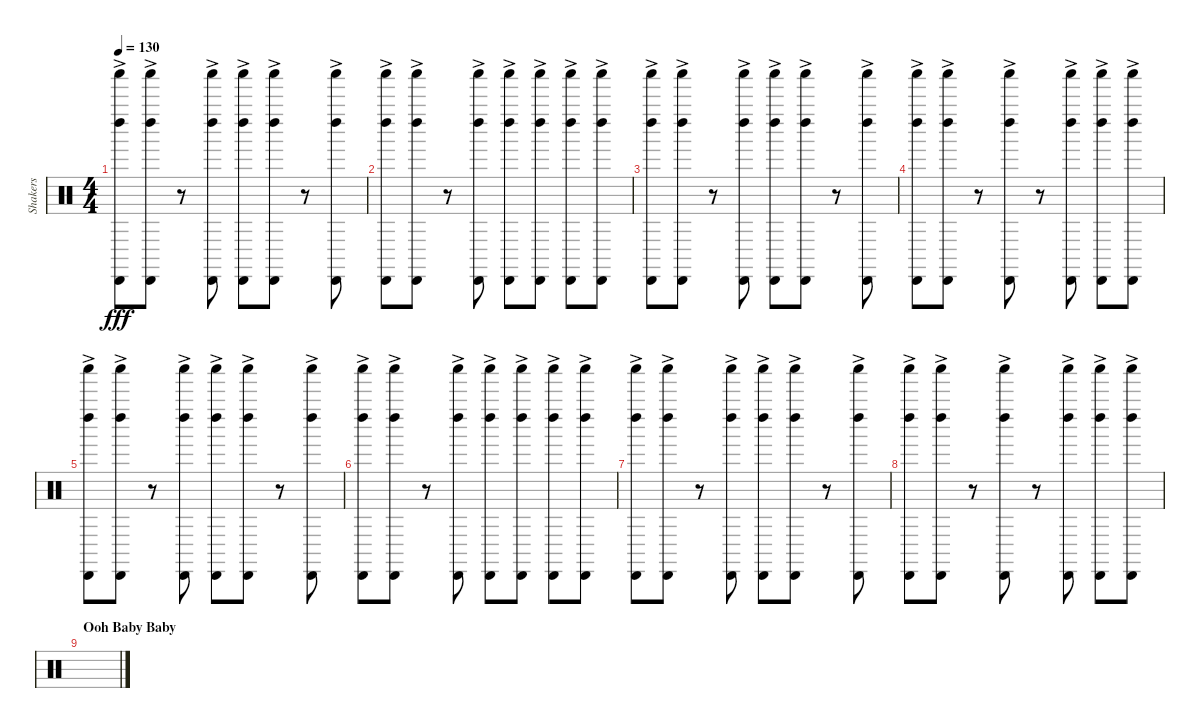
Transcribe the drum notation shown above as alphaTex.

\track ("Shakers" "Shakers") {instrument percussion}
\staff {score}
\articulation defaults
\ts (4 4)
\tempo 130
\clef neutral
\ks c
("Cabasa (hit)"{ac} "Left Maraca (hit)"{ac} "Shaker (hit)"{ac}).8{dy fff} ("Cabasa (hit)"{ac} "Left Maraca (hit)"{ac} "Shaker (hit)"{ac}).8 r.8 ("Cabasa (hit)"{ac} "Left Maraca (hit)"{ac} "Shaker (hit)"{ac}).8 ("Cabasa (hit)"{ac} "Left Maraca (hit)"{ac} "Shaker (hit)"{ac}).8 ("Cabasa (hit)"{ac} "Left Maraca (hit)"{ac} "Shaker (hit)"{ac}).8 r.8 ("Cabasa (hit)"{ac} "Left Maraca (hit)"{ac} "Shaker (hit)"{ac}).8 |
("Cabasa (hit)"{ac} "Left Maraca (hit)"{ac} "Shaker (hit)"{ac}).8 ("Cabasa (hit)"{ac} "Left Maraca (hit)"{ac} "Shaker (hit)"{ac}).8 r.8 ("Cabasa (hit)"{ac} "Left Maraca (hit)"{ac} "Shaker (hit)"{ac}).8 ("Cabasa (hit)"{ac} "Left Maraca (hit)"{ac} "Shaker (hit)"{ac}).8 ("Cabasa (hit)"{ac} "Left Maraca (hit)"{ac} "Shaker (hit)"{ac}).8 ("Cabasa (hit)"{ac} "Left Maraca (hit)"{ac} "Shaker (hit)"{ac}).8 ("Cabasa (hit)"{ac} "Left Maraca (hit)"{ac} "Shaker (hit)"{ac}).8 |
("Cabasa (hit)"{ac} "Left Maraca (hit)"{ac} "Shaker (hit)"{ac}).8 ("Cabasa (hit)"{ac} "Left Maraca (hit)"{ac} "Shaker (hit)"{ac}).8 r.8 ("Cabasa (hit)"{ac} "Left Maraca (hit)"{ac} "Shaker (hit)"{ac}).8 ("Cabasa (hit)"{ac} "Left Maraca (hit)"{ac} "Shaker (hit)"{ac}).8 ("Cabasa (hit)"{ac} "Left Maraca (hit)"{ac} "Shaker (hit)"{ac}).8 r.8 ("Cabasa (hit)"{ac} "Left Maraca (hit)"{ac} "Shaker (hit)"{ac}).8 |
("Cabasa (hit)"{ac} "Left Maraca (hit)"{ac} "Shaker (hit)"{ac}).8 ("Cabasa (hit)"{ac} "Left Maraca (hit)"{ac} "Shaker (hit)"{ac}).8 r.8 ("Cabasa (hit)"{ac} "Left Maraca (hit)"{ac} "Shaker (hit)"{ac}).8 r.8 ("Cabasa (hit)"{ac} "Left Maraca (hit)"{ac} "Shaker (hit)"{ac}).8 ("Cabasa (hit)"{ac} "Left Maraca (hit)"{ac} "Shaker (hit)"{ac}).8 ("Cabasa (hit)"{ac} "Left Maraca (hit)"{ac} "Shaker (hit)"{ac}).8 |
("Cabasa (hit)"{ac} "Left Maraca (hit)"{ac} "Shaker (hit)"{ac}).8 ("Cabasa (hit)"{ac} "Left Maraca (hit)"{ac} "Shaker (hit)"{ac}).8 r.8 ("Cabasa (hit)"{ac} "Left Maraca (hit)"{ac} "Shaker (hit)"{ac}).8 ("Cabasa (hit)"{ac} "Left Maraca (hit)"{ac} "Shaker (hit)"{ac}).8 ("Cabasa (hit)"{ac} "Left Maraca (hit)"{ac} "Shaker (hit)"{ac}).8 r.8 ("Cabasa (hit)"{ac} "Left Maraca (hit)"{ac} "Shaker (hit)"{ac}).8 |
("Cabasa (hit)"{ac} "Left Maraca (hit)"{ac} "Shaker (hit)"{ac}).8 ("Cabasa (hit)"{ac} "Left Maraca (hit)"{ac} "Shaker (hit)"{ac}).8 r.8 ("Cabasa (hit)"{ac} "Left Maraca (hit)"{ac} "Shaker (hit)"{ac}).8 ("Cabasa (hit)"{ac} "Left Maraca (hit)"{ac} "Shaker (hit)"{ac}).8 ("Cabasa (hit)"{ac} "Left Maraca (hit)"{ac} "Shaker (hit)"{ac}).8 ("Cabasa (hit)"{ac} "Left Maraca (hit)"{ac} "Shaker (hit)"{ac}).8 ("Cabasa (hit)"{ac} "Left Maraca (hit)"{ac} "Shaker (hit)"{ac}).8 |
("Cabasa (hit)"{ac} "Left Maraca (hit)"{ac} "Shaker (hit)"{ac}).8 ("Cabasa (hit)"{ac} "Left Maraca (hit)"{ac} "Shaker (hit)"{ac}).8 r.8 ("Cabasa (hit)"{ac} "Left Maraca (hit)"{ac} "Shaker (hit)"{ac}).8 ("Cabasa (hit)"{ac} "Left Maraca (hit)"{ac} "Shaker (hit)"{ac}).8 ("Cabasa (hit)"{ac} "Left Maraca (hit)"{ac} "Shaker (hit)"{ac}).8 r.8 ("Cabasa (hit)"{ac} "Left Maraca (hit)"{ac} "Shaker (hit)"{ac}).8 |
("Cabasa (hit)"{ac} "Left Maraca (hit)"{ac} "Shaker (hit)"{ac}).8 ("Cabasa (hit)"{ac} "Left Maraca (hit)"{ac} "Shaker (hit)"{ac}).8 r.8 ("Cabasa (hit)"{ac} "Left Maraca (hit)"{ac} "Shaker (hit)"{ac}).8 r.8 ("Cabasa (hit)"{ac} "Left Maraca (hit)"{ac} "Shaker (hit)"{ac}).8 ("Cabasa (hit)"{ac} "Left Maraca (hit)"{ac} "Shaker (hit)"{ac}).8 ("Cabasa (hit)"{ac} "Left Maraca (hit)"{ac} "Shaker (hit)"{ac}).8 |
\section ("" "Ooh Baby Baby")
